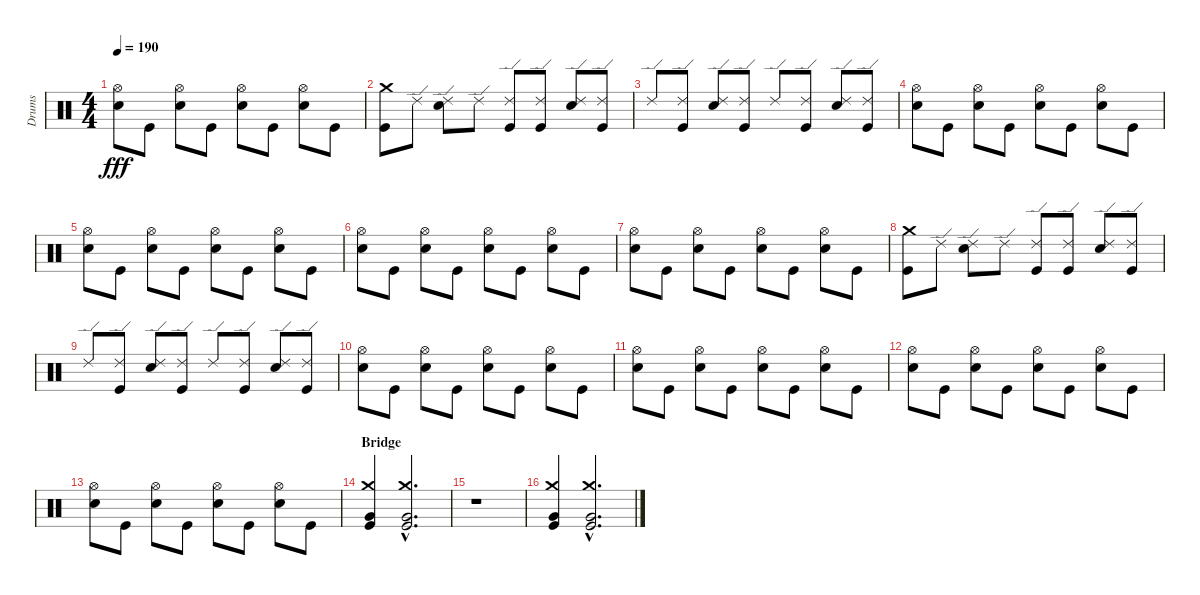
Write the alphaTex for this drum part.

\track ("Drums" "Drums") {instrument percussion}
\staff {score}
\articulation defaults
\ts (4 4)
\tempo 190
\clef neutral
\ks c
("Hi-Hat (open)" "Snare (hit) 2").8{dy fff} "Kick (hit)".8 ("Hi-Hat (open)" "Snare (hit) 2").8 "Kick (hit)".8 ("Hi-Hat (open)" "Snare (hit) 2").8 "Kick (hit)".8 ("Hi-Hat (open)" "Snare (hit) 2").8 "Kick (hit)".8 |
("Crash medium (hit)" "Kick (hit)").8 "Ride (edge) 2".8 ("Ride (edge) 2" "Snare (hit) 2").8 "Ride (edge) 2".8 ("Ride (edge) 2" "Kick (hit)").8 ("Ride (edge) 2" "Kick (hit)").8 ("Ride (edge) 2" "Snare (hit) 2").8 ("Ride (edge) 2" "Kick (hit)").8 |
"Ride (edge) 2".8 ("Ride (edge) 2" "Kick (hit)").8 ("Ride (edge) 2" "Snare (hit) 2").8 ("Ride (edge) 2" "Kick (hit)").8 "Ride (edge) 2".8 ("Ride (edge) 2" "Kick (hit)").8 ("Ride (edge) 2" "Snare (hit) 2").8 ("Ride (edge) 2" "Kick (hit)").8 |
("Hi-Hat (open)" "Snare (hit) 2").8 "Kick (hit)".8 ("Hi-Hat (open)" "Snare (hit) 2").8 "Kick (hit)".8 ("Hi-Hat (open)" "Snare (hit) 2").8 "Kick (hit)".8 ("Hi-Hat (open)" "Snare (hit) 2").8 "Kick (hit)".8 |
("Hi-Hat (open)" "Snare (hit) 2").8 "Kick (hit)".8 ("Hi-Hat (open)" "Snare (hit) 2").8 "Kick (hit)".8 ("Hi-Hat (open)" "Snare (hit) 2").8 "Kick (hit)".8 ("Hi-Hat (open)" "Snare (hit) 2").8 "Kick (hit)".8 |
("Hi-Hat (open)" "Snare (hit) 2").8 "Kick (hit)".8 ("Hi-Hat (open)" "Snare (hit) 2").8 "Kick (hit)".8 ("Hi-Hat (open)" "Snare (hit) 2").8 "Kick (hit)".8 ("Hi-Hat (open)" "Snare (hit) 2").8 "Kick (hit)".8 |
("Hi-Hat (open)" "Snare (hit) 2").8 "Kick (hit)".8 ("Hi-Hat (open)" "Snare (hit) 2").8 "Kick (hit)".8 ("Hi-Hat (open)" "Snare (hit) 2").8 "Kick (hit)".8 ("Hi-Hat (open)" "Snare (hit) 2").8 "Kick (hit)".8 |
("Crash medium (hit)" "Kick (hit)").8 "Ride (edge) 2".8 ("Ride (edge) 2" "Snare (hit) 2").8 "Ride (edge) 2".8 ("Ride (edge) 2" "Kick (hit)").8 ("Ride (edge) 2" "Kick (hit)").8 ("Ride (edge) 2" "Snare (hit) 2").8 ("Ride (edge) 2" "Kick (hit)").8 |
"Ride (edge) 2".8 ("Ride (edge) 2" "Kick (hit)").8 ("Ride (edge) 2" "Snare (hit) 2").8 ("Ride (edge) 2" "Kick (hit)").8 "Ride (edge) 2".8 ("Ride (edge) 2" "Kick (hit)").8 ("Ride (edge) 2" "Snare (hit) 2").8 ("Ride (edge) 2" "Kick (hit)").8 |
("Hi-Hat (open)" "Snare (hit) 2").8 "Kick (hit)".8 ("Hi-Hat (open)" "Snare (hit) 2").8 "Kick (hit)".8 ("Hi-Hat (open)" "Snare (hit) 2").8 "Kick (hit)".8 ("Hi-Hat (open)" "Snare (hit) 2").8 "Kick (hit)".8 |
("Hi-Hat (open)" "Snare (hit) 2").8 "Kick (hit)".8 ("Hi-Hat (open)" "Snare (hit) 2").8 "Kick (hit)".8 ("Hi-Hat (open)" "Snare (hit) 2").8 "Kick (hit)".8 ("Hi-Hat (open)" "Snare (hit) 2").8 "Kick (hit)".8 |
("Hi-Hat (open)" "Snare (hit) 2").8 "Kick (hit)".8 ("Hi-Hat (open)" "Snare (hit) 2").8 "Kick (hit)".8 ("Hi-Hat (open)" "Snare (hit) 2").8 "Kick (hit)".8 ("Hi-Hat (open)" "Snare (hit) 2").8 "Kick (hit)".8 |
("Hi-Hat (open)" "Snare (hit) 2").8 "Kick (hit)".8 ("Hi-Hat (open)" "Snare (hit) 2").8 "Kick (hit)".8 ("Hi-Hat (open)" "Snare (hit) 2").8 "Kick (hit)".8 ("Hi-Hat (open)" "Snare (hit) 2").8 "Kick (hit)".8 |
\section ("" "Bridge")
("Crash medium (hit)" "Very Low Tom (hit)" "Kick (hit)").4 ("Crash medium (hit)"{hac} "Very Low Tom (hit)"{hac} "Kick (hit)"{hac}).2{d} |
r.1 |
("Crash medium (hit)" "Very Low Tom (hit)" "Kick (hit)").4 ("Crash medium (hit)"{hac} "Very Low Tom (hit)"{hac} "Kick (hit)"{hac}).2{d}
